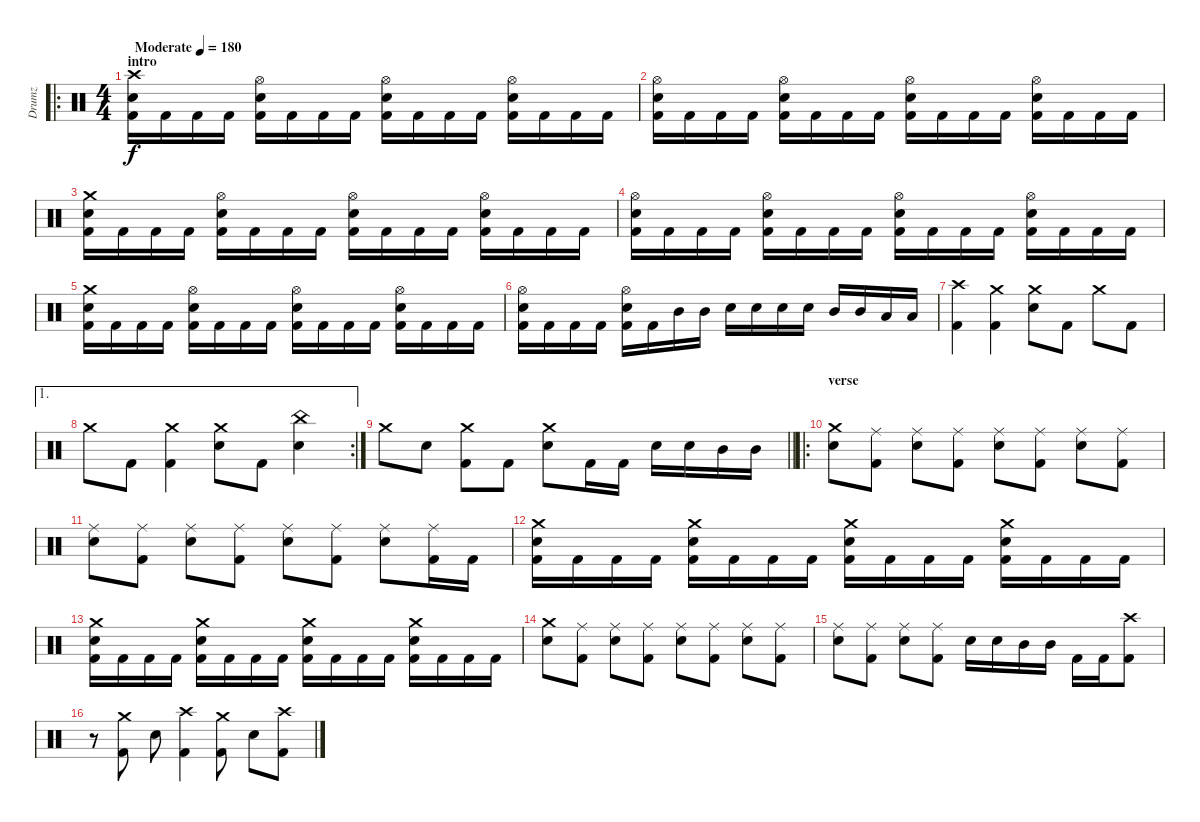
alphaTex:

\track ("Drumz" "Drumz") {instrument percussion}
\staff {score}
\articulation defaults
\ro
\ts (4 4)
\section ("" "intro")
\tempo (180 "Moderate")
\clef neutral
\ks c
("Crash high (hit)" "Electric Snare (hit)" "Kick (hit) 2").16{dy f} "Kick (hit) 2".16 "Kick (hit) 2".16 "Kick (hit) 2".16 ("Hi-Hat (open)" "Electric Snare (hit)" "Kick (hit) 2").16 "Kick (hit) 2".16 "Kick (hit) 2".16 "Kick (hit) 2".16 ("Hi-Hat (open)" "Electric Snare (hit)" "Kick (hit) 2").16 "Kick (hit) 2".16 "Kick (hit) 2".16 "Kick (hit) 2".16 ("Hi-Hat (open)" "Electric Snare (hit)" "Kick (hit) 2").16 "Kick (hit) 2".16 "Kick (hit) 2".16 "Kick (hit) 2".16 |
("Hi-Hat (open)" "Electric Snare (hit)" "Kick (hit) 2").16 "Kick (hit) 2".16 "Kick (hit) 2".16 "Kick (hit) 2".16 ("Hi-Hat (open)" "Electric Snare (hit)" "Kick (hit) 2").16 "Kick (hit) 2".16 "Kick (hit) 2".16 "Kick (hit) 2".16 ("Hi-Hat (open)" "Electric Snare (hit)" "Kick (hit) 2").16 "Kick (hit) 2".16 "Kick (hit) 2".16 "Kick (hit) 2".16 ("Hi-Hat (open)" "Electric Snare (hit)" "Kick (hit) 2").16 "Kick (hit) 2".16 "Kick (hit) 2".16 "Kick (hit) 2".16 |
("Crash medium (hit)" "Electric Snare (hit)" "Kick (hit) 2").16 "Kick (hit) 2".16 "Kick (hit) 2".16 "Kick (hit) 2".16 ("Hi-Hat (open)" "Electric Snare (hit)" "Kick (hit) 2").16 "Kick (hit) 2".16 "Kick (hit) 2".16 "Kick (hit) 2".16 ("Hi-Hat (open)" "Electric Snare (hit)" "Kick (hit) 2").16 "Kick (hit) 2".16 "Kick (hit) 2".16 "Kick (hit) 2".16 ("Hi-Hat (open)" "Electric Snare (hit)" "Kick (hit) 2").16 "Kick (hit) 2".16 "Kick (hit) 2".16 "Kick (hit) 2".16 |
("Hi-Hat (open)" "Electric Snare (hit)" "Kick (hit) 2").16 "Kick (hit) 2".16 "Kick (hit) 2".16 "Kick (hit) 2".16 ("Hi-Hat (open)" "Electric Snare (hit)" "Kick (hit) 2").16 "Kick (hit) 2".16 "Kick (hit) 2".16 "Kick (hit) 2".16 ("Hi-Hat (open)" "Electric Snare (hit)" "Kick (hit) 2").16 "Kick (hit) 2".16 "Kick (hit) 2".16 "Kick (hit) 2".16 ("Hi-Hat (open)" "Electric Snare (hit)" "Kick (hit) 2").16 "Kick (hit) 2".16 "Kick (hit) 2".16 "Kick (hit) 2".16 |
("Crash medium (hit)" "Electric Snare (hit)" "Kick (hit) 2").16 "Kick (hit) 2".16 "Kick (hit) 2".16 "Kick (hit) 2".16 ("Hi-Hat (open)" "Electric Snare (hit)" "Kick (hit) 2").16 "Kick (hit) 2".16 "Kick (hit) 2".16 "Kick (hit) 2".16 ("Hi-Hat (open)" "Electric Snare (hit)" "Kick (hit) 2").16 "Kick (hit) 2".16 "Kick (hit) 2".16 "Kick (hit) 2".16 ("Hi-Hat (open)" "Electric Snare (hit)" "Kick (hit) 2").16 "Kick (hit) 2".16 "Kick (hit) 2".16 "Kick (hit) 2".16 |
("Hi-Hat (open)" "Electric Snare (hit)" "Kick (hit) 2").16 "Kick (hit) 2".16 "Kick (hit) 2".16 "Kick (hit) 2".16 ("Hi-Hat (open)" "Electric Snare (hit)" "Kick (hit) 2").16 "Kick (hit) 2".16 "Mid Tom (hit)".16 "Mid Tom (hit)".16 "Electric Snare (hit)".16 "Electric Snare (hit)".16 "Electric Snare (hit)".16 "Electric Snare (hit)".16 "Mid Tom (hit)".16 "Mid Tom (hit)".16 "Low Tom (hit)".16 "Low Tom (hit)".16 |
("Crash high (hit)" "Kick (hit) 2").4 ("Crash medium (hit)" "Kick (hit) 2").4 ("Crash medium (hit)" "Electric Snare (hit)").8 "Kick (hit) 2".8 "Crash medium (hit)".8 "Kick (hit) 2".8 |
\ae 1
\rc 2 "Crash medium (hit)".8 "Kick (hit) 2".8
("Crash medium (hit)" "Kick (hit) 2").4 ("Crash medium (hit)" "Electric Snare (hit)").8 "Kick (hit) 2".8 ("China (hit)" "Electric Snare (hit)").4 |
\barLineRight lightlight "Crash medium (hit)".8 "Electric Snare (hit)".8
("Crash medium (hit)" "Kick (hit) 2").8 "Kick (hit) 2".8 ("Crash medium (hit)" "Electric Snare (hit)").8 "Kick (hit) 2".16 "Kick (hit) 2".16 "Electric Snare (hit)".16 "Electric Snare (hit)".16 "Mid Tom (hit)".16 "Mid Tom (hit)".16 |
\ro
\section ("" "verse")
("Crash medium (hit)" "Electric Snare (hit)").8 ("Ride (middle)" "Kick (hit) 2").8 ("Ride (middle)" "Electric Snare (hit)").8 ("Ride (middle)" "Kick (hit) 2").8 ("Ride (middle)" "Electric Snare (hit)").8 ("Ride (middle)" "Kick (hit) 2").8 ("Ride (middle)" "Electric Snare (hit)").8 ("Ride (middle)" "Kick (hit) 2").8 |
("Ride (middle)" "Electric Snare (hit)").8 ("Ride (middle)" "Kick (hit) 2").8 ("Ride (middle)" "Electric Snare (hit)").8 ("Ride (middle)" "Kick (hit) 2").8 ("Ride (middle)" "Electric Snare (hit)").8 ("Ride (middle)" "Kick (hit) 2").8 ("Ride (middle)" "Electric Snare (hit)").8 ("Ride (middle)" "Kick (hit) 2").16 "Kick (hit) 2".16 |
("Crash medium (hit)" "Electric Snare (hit)" "Kick (hit) 2").16 "Kick (hit) 2".16 "Kick (hit) 2".16 "Kick (hit) 2".16 ("Crash medium (hit)" "Electric Snare (hit)" "Kick (hit) 2").16 "Kick (hit) 2".16 "Kick (hit) 2".16 "Kick (hit) 2".16 ("Crash medium (hit)" "Electric Snare (hit)" "Kick (hit) 2").16 "Kick (hit) 2".16 "Kick (hit) 2".16 "Kick (hit) 2".16 ("Crash medium (hit)" "Electric Snare (hit)" "Kick (hit) 2").16 "Kick (hit) 2".16 "Kick (hit) 2".16 "Kick (hit) 2".16 |
("Crash medium (hit)" "Electric Snare (hit)" "Kick (hit) 2").16 "Kick (hit) 2".16 "Kick (hit) 2".16 "Kick (hit) 2".16 ("Crash medium (hit)" "Electric Snare (hit)" "Kick (hit) 2").16 "Kick (hit) 2".16 "Kick (hit) 2".16 "Kick (hit) 2".16 ("Crash medium (hit)" "Electric Snare (hit)" "Kick (hit) 2").16 "Kick (hit) 2".16 "Kick (hit) 2".16 "Kick (hit) 2".16 ("Crash medium (hit)" "Electric Snare (hit)" "Kick (hit) 2").16 "Kick (hit) 2".16 "Kick (hit) 2".16 "Kick (hit) 2".16 |
("Crash medium (hit)" "Electric Snare (hit)").8 ("Ride (middle)" "Kick (hit) 2").8 ("Ride (middle)" "Electric Snare (hit)").8 ("Ride (middle)" "Kick (hit) 2").8 ("Ride (middle)" "Electric Snare (hit)").8 ("Ride (middle)" "Kick (hit) 2").8 ("Ride (middle)" "Electric Snare (hit)").8 ("Ride (middle)" "Kick (hit) 2").8 |
("Ride (middle)" "Electric Snare (hit)").8 ("Ride (middle)" "Kick (hit) 2").8 ("Ride (middle)" "Electric Snare (hit)").8 ("Ride (middle)" "Kick (hit) 2").8 "Electric Snare (hit)".16 "Electric Snare (hit)".16 "Mid Tom (hit)".16 "Mid Tom (hit)".16 "Kick (hit) 2".16 "Kick (hit) 2".16 ("Crash high (hit)" "Kick (hit) 2").8 |
r.8 ("Crash medium (hit)" "Kick (hit) 2").8 "Electric Snare (hit)".8 ("Crash high (hit)" "Kick (hit) 2").4 ("Crash medium (hit)" "Kick (hit) 2").8 "Electric Snare (hit)".8 ("Crash high (hit)" "Kick (hit) 2").8
